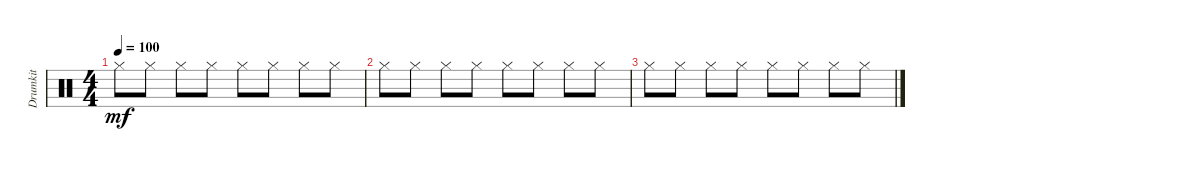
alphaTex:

\track ("Drumkit" "Drumkit") {instrument percussion}
\staff {score}
\articulation defaults
\ts (4 4)
\tempo 100
\clef neutral
\ks aminor "Hi-Hat (closed)".8{dy mf} "Hi-Hat (closed)".8 "Hi-Hat (closed)".8 "Hi-Hat (closed)".8 "Hi-Hat (closed)".8 "Hi-Hat (closed)".8 "Hi-Hat (closed)".8 "Hi-Hat (closed)".8
|
"Hi-Hat (closed)".8 "Hi-Hat (closed)".8 "Hi-Hat (closed)".8 "Hi-Hat (closed)".8 "Hi-Hat (closed)".8 "Hi-Hat (closed)".8 "Hi-Hat (closed)".8 "Hi-Hat (closed)".8 |
"Hi-Hat (closed)".8 "Hi-Hat (closed)".8 "Hi-Hat (closed)".8 "Hi-Hat (closed)".8 "Hi-Hat (closed)".8 "Hi-Hat (closed)".8 "Hi-Hat (closed)".8 "Hi-Hat (closed)".8
